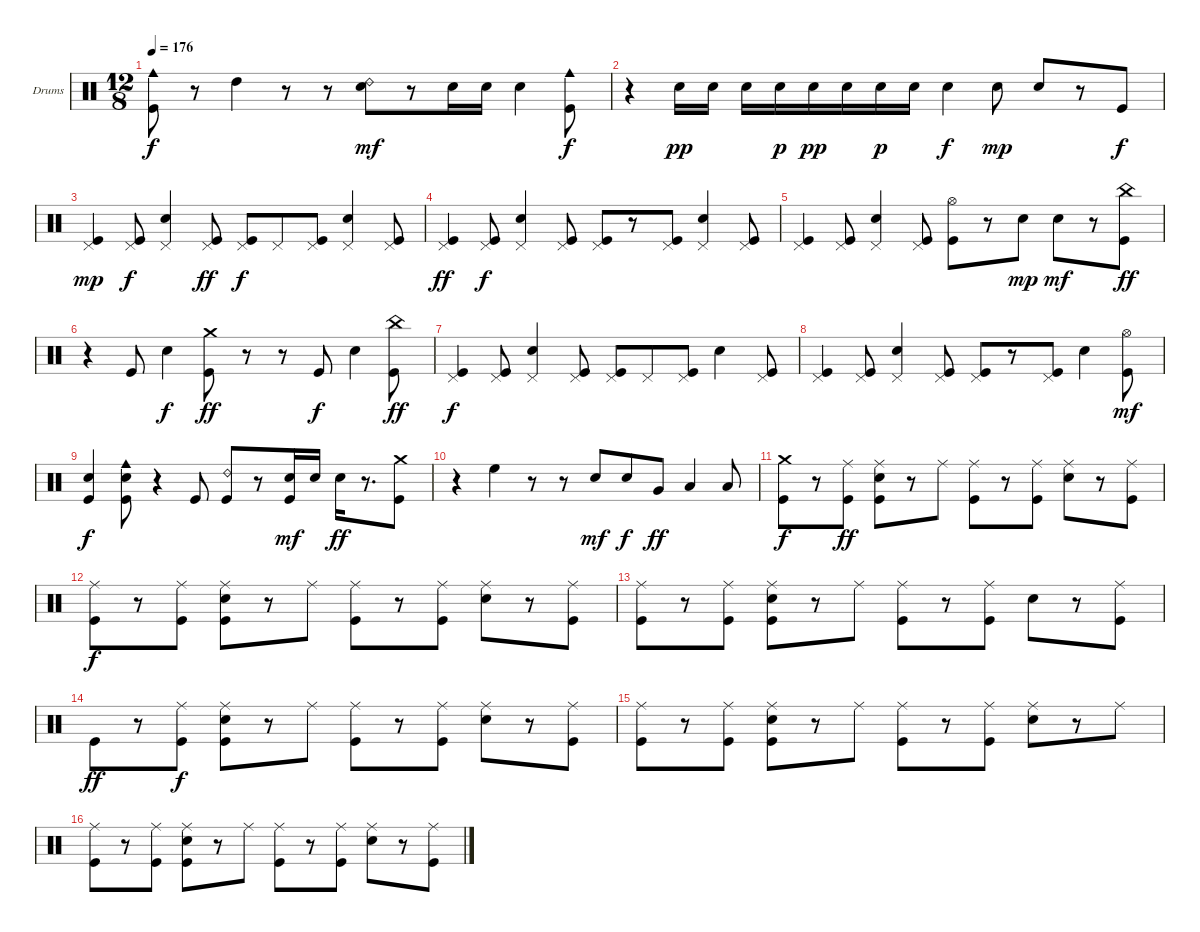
\defaultSystemsLayout 4
\bracketExtendMode groupsimilarinstruments
\firstSystemTrackNameOrientation horizontal
\otherSystemsTrackNameOrientation horizontal
\track ("Drumkit" "Drums") {instrument percussion}
\staff {score}
\articulation defaults
\ts (12 8)
\tempo 176
\clef neutral
\scale
0.333333
\ks c
("Cowbell medium (hit)" "Kick (hit)").8{dy f} r.8 "High Tom (hit)".4 r.8 r.8 ("Ride (bell) 2" "Snare (hit) 2").8{dy mf} r.8 "Snare (hit) 2".16 "Snare (hit) 2".16 "Snare (hit) 2".4 ("Cowbell medium (hit)" "Kick (hit)").8{dy f} |
\scale
0.333333 r.4 "Snare (hit) 2".16{dy pp} "Snare (hit) 2".16 "Snare (hit) 2".16 "Snare (hit) 2".16{dy p} "Snare (hit) 2".16{dy pp} "Snare (hit) 2".16 "Snare (hit) 2".16{dy p} "Snare (hit) 2".16 "Snare (hit) 2".4{dy f} "Snare (hit) 2".8{dy mp} "Snare (hit) 2".8 r.8 "Kick (hit)".8{dy f} |
\scale
0.333333 ("Pedal Hi-Hat (hit)" "Kick (hit)").4{dy mp} ("Pedal Hi-Hat (hit)" "Kick (hit)").8{dy f} ("Snare (hit) 2" "Pedal Hi-Hat (hit)").4 ("Pedal Hi-Hat (hit)" "Kick (hit)").8{dy ff} ("Pedal Hi-Hat (hit)" "Kick (hit)").8{dy f} "Pedal Hi-Hat (hit)".8 ("Pedal Hi-Hat (hit)" "Kick (hit)").8 ("Snare (hit) 2" "Pedal Hi-Hat (hit)").4 ("Pedal Hi-Hat (hit)" "Kick (hit)").8 |
\scale
0.333333 ("Pedal Hi-Hat (hit)" "Kick (hit)").4{dy ff} ("Pedal Hi-Hat (hit)" "Kick (hit)").8{dy f} ("Snare (hit) 2" "Pedal Hi-Hat (hit)").4 ("Pedal Hi-Hat (hit)" "Kick (hit)").8 ("Pedal Hi-Hat (hit)" "Kick (hit)").8 r.8 ("Pedal Hi-Hat (hit)" "Kick (hit)").8 ("Snare (hit) 2" "Pedal Hi-Hat (hit)").4 ("Pedal Hi-Hat (hit)" "Kick (hit)").8 |
\scale
0.333333 ("Pedal Hi-Hat (hit)" "Kick (hit)").4 ("Pedal Hi-Hat (hit)" "Kick (hit)").8 ("Snare (hit) 2" "Pedal Hi-Hat (hit)").4 ("Pedal Hi-Hat (hit)" "Kick (hit)").8 ("Hi-Hat (open)" "Kick (hit)").8 r.8 "Snare (hit) 2".8{dy mp} "Snare (hit) 2".8{dy mf} r.8 ("China (hit)" "Kick (hit)").8{dy ff} |
\scale
0.333333 r.4 "Kick (hit)".8 "Snare (hit) 2".4{dy f} ("Crash medium (hit)" "Kick (hit)").8{dy ff} r.8 r.8 "Kick (hit)".8{dy f} "Snare (hit) 2".4 ("China (hit)" "Kick (hit)").8{dy ff} |
\scale
0.333333 ("Pedal Hi-Hat (hit)" "Kick (hit)").4{dy f} ("Pedal Hi-Hat (hit)" "Kick (hit)").8 ("Snare (hit) 2" "Pedal Hi-Hat (hit)").4 ("Pedal Hi-Hat (hit)" "Kick (hit)").8 ("Pedal Hi-Hat (hit)" "Kick (hit)").8 "Pedal Hi-Hat (hit)".8 ("Pedal Hi-Hat (hit)" "Kick (hit)").8 "Snare (hit) 2".4 ("Pedal Hi-Hat (hit)" "Kick (hit)").8 |
\scale
0.333333 ("Pedal Hi-Hat (hit)" "Kick (hit)").4 ("Pedal Hi-Hat (hit)" "Kick (hit)").8 ("Snare (hit) 2" "Pedal Hi-Hat (hit)").4 ("Pedal Hi-Hat (hit)" "Kick (hit)").8 ("Pedal Hi-Hat (hit)" "Kick (hit)").8 r.8 ("Pedal Hi-Hat (hit)" "Kick (hit)").8 "Snare (hit) 2".4 ("Hi-Hat (open)" "Kick (hit)").8{dy mf} |
\scale
0.333333 ("Snare (hit) 2" "Kick (hit)").4{dy f} ("Snare (hit) 2" "Cowbell medium (hit)" "Kick (hit)").8 r.4 "Kick (hit)".8 ("Ride (bell) 2" "Kick (hit)").8 r.8 ("Snare (hit) 2" "Kick (hit)").16{dy mf} "Snare (hit) 2".16 "Snare (hit) 2".16{dy ff} r.8{d} ("Crash medium (hit)" "Kick (hit)").8 |
\scale
0.333333 r.4 "High Floor Tom (hit)".4 r.8 r.8 "Snare (hit) 2".8{dy mf} "Snare (hit) 2".8{dy f} "Very Low Tom (hit)".8{dy ff} "Low Tom (hit)".4 "Low Tom (hit)".8 |
\scale
0.333333 ("Crash medium (hit)" "Kick (hit)").8{dy f} r.8 ("Ride (middle)" "Kick (hit)").8{dy ff} ("Ride (middle)" "Snare (hit) 2" "Kick (hit)").8 r.8 "Ride (middle)".8 ("Ride (middle)" "Kick (hit)").8 r.8 ("Ride (middle)" "Kick (hit)").8 ("Ride (middle)" "Snare (hit) 2").8 r.8 ("Ride (middle)" "Kick (hit)").8 |
\scale
0.333333 ("Ride (middle)" "Kick (hit)").8{dy f} r.8 ("Ride (middle)" "Kick (hit)").8 ("Ride (middle)" "Snare (hit) 2" "Kick (hit)").8 r.8 "Ride (middle)".8 ("Ride (middle)" "Kick (hit)").8 r.8 ("Ride (middle)" "Kick (hit)").8 ("Ride (middle)" "Snare (hit) 2").8 r.8 ("Ride (middle)" "Kick (hit)").8 |
\scale
0.333333 ("Ride (middle)" "Kick (hit)").8 r.8 ("Ride (middle)" "Kick (hit)").8 ("Ride (middle)" "Snare (hit) 2" "Kick (hit)").8 r.8 "Ride (middle)".8 ("Ride (middle)" "Kick (hit)").8 r.8 ("Ride (middle)" "Kick (hit)").8 "Snare (hit) 2".8 r.8 ("Ride (middle)" "Kick (hit)").8 |
\scale
0.333333 "Kick (hit)".8{dy ff} r.8 ("Ride (middle)" "Kick (hit)").8{dy f} ("Ride (middle)" "Snare (hit) 2" "Kick (hit)").8 r.8 "Ride (middle)".8 ("Ride (middle)" "Kick (hit)").8 r.8 ("Ride (middle)" "Kick (hit)").8 ("Ride (middle)" "Snare (hit) 2").8 r.8 ("Ride (middle)" "Kick (hit)").8 |
\scale
0.333333 ("Ride (middle)" "Kick (hit)").8 r.8 ("Ride (middle)" "Kick (hit)").8 ("Ride (middle)" "Snare (hit) 2" "Kick (hit)").8 r.8 "Ride (middle)".8 ("Ride (middle)" "Kick (hit)").8 r.8 ("Ride (middle)" "Kick (hit)").8 ("Ride (middle)" "Snare (hit) 2").8 r.8 "Ride (middle)".8 |
\scale
0.333333 ("Ride (middle)" "Kick (hit)").8 r.8 ("Ride (middle)" "Kick (hit)").8 ("Ride (middle)" "Snare (hit) 2" "Kick (hit)").8 r.8 "Ride (middle)".8 ("Ride (middle)" "Kick (hit)").8 r.8 ("Ride (middle)" "Kick (hit)").8 ("Ride (middle)" "Snare (hit) 2").8 r.8 ("Ride (middle)" "Kick (hit)").8
